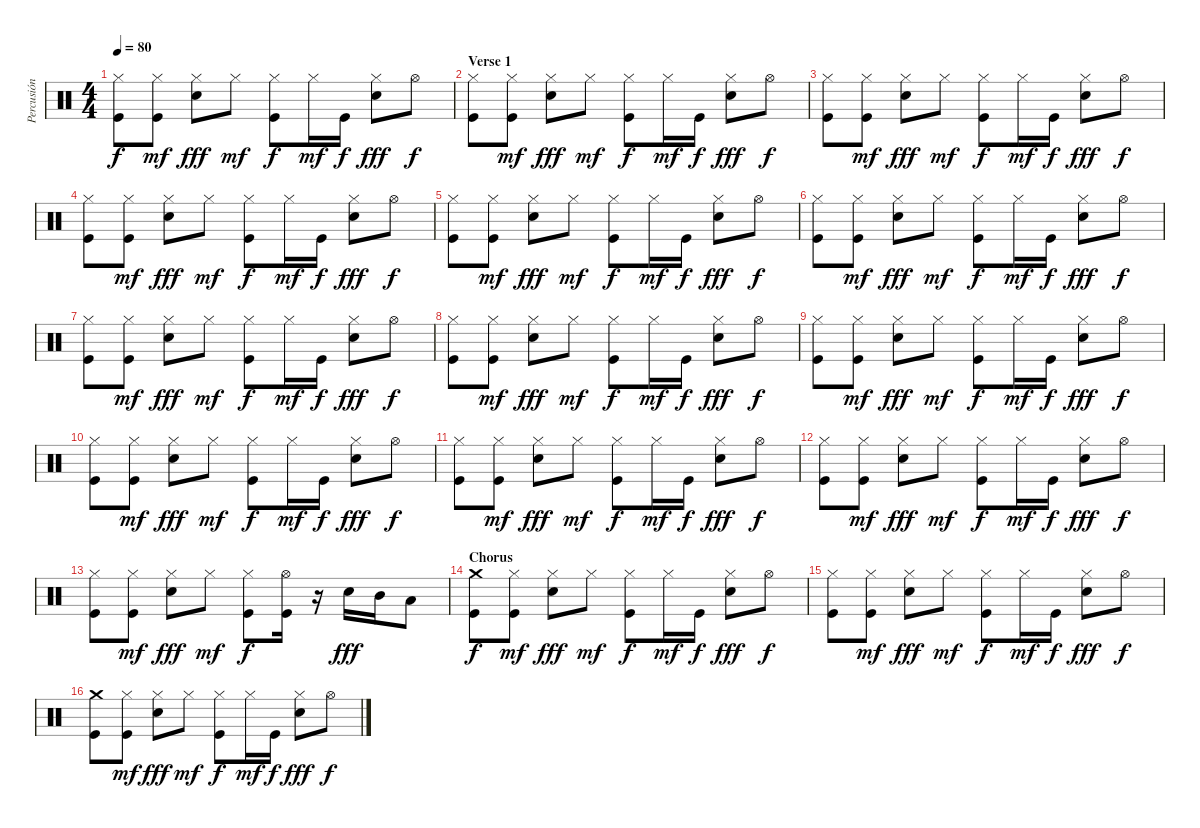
\track ("Percusión" "Percusión") {instrument percussion}
\staff {score}
\articulation defaults
\ts (4 4)
\tempo 80
\clef neutral
\ks c
("Kick (hit)" "Hi-Hat (closed)").8{dy f} ("Kick (hit)" "Hi-Hat (closed)").8{dy mf} ("Snare (hit) 2" "Hi-Hat (closed)").8{dy fff} "Hi-Hat (closed)".8{dy mf} ("Kick (hit)" "Hi-Hat (closed)").8{dy f} "Hi-Hat (closed)".16{dy mf} "Kick (hit)".16{dy f} ("Snare (hit) 2" "Hi-Hat (closed)").8{dy fff} "Hi-Hat (open)".8{dy f} |
\section ("" "Verse 1")
("Kick (hit)" "Hi-Hat (closed)").8 ("Kick (hit)" "Hi-Hat (closed)").8{dy mf} ("Snare (hit) 2" "Hi-Hat (closed)").8{dy fff} "Hi-Hat (closed)".8{dy mf} ("Kick (hit)" "Hi-Hat (closed)").8{dy f} "Hi-Hat (closed)".16{dy mf} "Kick (hit)".16{dy f} ("Snare (hit) 2" "Hi-Hat (closed)").8{dy fff} "Hi-Hat (open)".8{dy f} |
("Kick (hit)" "Hi-Hat (closed)").8 ("Kick (hit)" "Hi-Hat (closed)").8{dy mf} ("Snare (hit) 2" "Hi-Hat (closed)").8{dy fff} "Hi-Hat (closed)".8{dy mf} ("Kick (hit)" "Hi-Hat (closed)").8{dy f} "Hi-Hat (closed)".16{dy mf} "Kick (hit)".16{dy f} ("Snare (hit) 2" "Hi-Hat (closed)").8{dy fff} "Hi-Hat (open)".8{dy f} |
("Kick (hit)" "Hi-Hat (closed)").8 ("Kick (hit)" "Hi-Hat (closed)").8{dy mf} ("Snare (hit) 2" "Hi-Hat (closed)").8{dy fff} "Hi-Hat (closed)".8{dy mf} ("Kick (hit)" "Hi-Hat (closed)").8{dy f} "Hi-Hat (closed)".16{dy mf} "Kick (hit)".16{dy f} ("Snare (hit) 2" "Hi-Hat (closed)").8{dy fff} "Hi-Hat (open)".8{dy f} |
("Kick (hit)" "Hi-Hat (closed)").8 ("Kick (hit)" "Hi-Hat (closed)").8{dy mf} ("Snare (hit) 2" "Hi-Hat (closed)").8{dy fff} "Hi-Hat (closed)".8{dy mf} ("Kick (hit)" "Hi-Hat (closed)").8{dy f} "Hi-Hat (closed)".16{dy mf} "Kick (hit)".16{dy f} ("Snare (hit) 2" "Hi-Hat (closed)").8{dy fff} "Hi-Hat (open)".8{dy f} |
("Kick (hit)" "Hi-Hat (closed)").8 ("Kick (hit)" "Hi-Hat (closed)").8{dy mf} ("Snare (hit) 2" "Hi-Hat (closed)").8{dy fff} "Hi-Hat (closed)".8{dy mf} ("Kick (hit)" "Hi-Hat (closed)").8{dy f} "Hi-Hat (closed)".16{dy mf} "Kick (hit)".16{dy f} ("Snare (hit) 2" "Hi-Hat (closed)").8{dy fff} "Hi-Hat (open)".8{dy f} |
("Kick (hit)" "Hi-Hat (closed)").8 ("Kick (hit)" "Hi-Hat (closed)").8{dy mf} ("Snare (hit) 2" "Hi-Hat (closed)").8{dy fff} "Hi-Hat (closed)".8{dy mf} ("Kick (hit)" "Hi-Hat (closed)").8{dy f} "Hi-Hat (closed)".16{dy mf} "Kick (hit)".16{dy f} ("Snare (hit) 2" "Hi-Hat (closed)").8{dy fff} "Hi-Hat (open)".8{dy f} |
("Kick (hit)" "Hi-Hat (closed)").8 ("Kick (hit)" "Hi-Hat (closed)").8{dy mf} ("Snare (hit) 2" "Hi-Hat (closed)").8{dy fff} "Hi-Hat (closed)".8{dy mf} ("Kick (hit)" "Hi-Hat (closed)").8{dy f} "Hi-Hat (closed)".16{dy mf} "Kick (hit)".16{dy f} ("Snare (hit) 2" "Hi-Hat (closed)").8{dy fff} "Hi-Hat (open)".8{dy f} |
("Kick (hit)" "Hi-Hat (closed)").8 ("Kick (hit)" "Hi-Hat (closed)").8{dy mf} ("Snare (hit) 2" "Hi-Hat (closed)").8{dy fff} "Hi-Hat (closed)".8{dy mf} ("Kick (hit)" "Hi-Hat (closed)").8{dy f} "Hi-Hat (closed)".16{dy mf} "Kick (hit)".16{dy f} ("Snare (hit) 2" "Hi-Hat (closed)").8{dy fff} "Hi-Hat (open)".8{dy f} |
("Kick (hit)" "Hi-Hat (closed)").8 ("Kick (hit)" "Hi-Hat (closed)").8{dy mf} ("Snare (hit) 2" "Hi-Hat (closed)").8{dy fff} "Hi-Hat (closed)".8{dy mf} ("Kick (hit)" "Hi-Hat (closed)").8{dy f} "Hi-Hat (closed)".16{dy mf} "Kick (hit)".16{dy f} ("Snare (hit) 2" "Hi-Hat (closed)").8{dy fff} "Hi-Hat (open)".8{dy f} |
("Kick (hit)" "Hi-Hat (closed)").8 ("Kick (hit)" "Hi-Hat (closed)").8{dy mf} ("Snare (hit) 2" "Hi-Hat (closed)").8{dy fff} "Hi-Hat (closed)".8{dy mf} ("Kick (hit)" "Hi-Hat (closed)").8{dy f} "Hi-Hat (closed)".16{dy mf} "Kick (hit)".16{dy f} ("Snare (hit) 2" "Hi-Hat (closed)").8{dy fff} "Hi-Hat (open)".8{dy f} |
("Kick (hit)" "Hi-Hat (closed)").8 ("Kick (hit)" "Hi-Hat (closed)").8{dy mf} ("Snare (hit) 2" "Hi-Hat (closed)").8{dy fff} "Hi-Hat (closed)".8{dy mf} ("Kick (hit)" "Hi-Hat (closed)").8{dy f} "Hi-Hat (closed)".16{dy mf} "Kick (hit)".16{dy f} ("Snare (hit) 2" "Hi-Hat (closed)").8{dy fff} "Hi-Hat (open)".8{dy f} |
("Kick (hit)" "Hi-Hat (closed)").8 ("Kick (hit)" "Hi-Hat (closed)").8{dy mf} ("Snare (hit) 2" "Hi-Hat (closed)").8{dy fff} "Hi-Hat (closed)".8{dy mf} ("Kick (hit)" "Hi-Hat (closed)").8{dy f} ("Kick (hit)" "Hi-Hat (open)").16 r.16 "Snare (hit) 2".16{dy fff} "Mid Tom (hit)".16 "Low Tom (hit)".8 |
\section ("" "Chorus")
("Kick (hit)" "Crash medium (hit)").8{dy f} ("Kick (hit)" "Hi-Hat (closed)").8{dy mf} ("Snare (hit) 2" "Hi-Hat (closed)").8{dy fff} "Hi-Hat (closed)".8{dy mf} ("Kick (hit)" "Hi-Hat (closed)").8{dy f} "Hi-Hat (closed)".16{dy mf} "Kick (hit)".16{dy f} ("Snare (hit) 2" "Hi-Hat (closed)").8{dy fff} "Hi-Hat (open)".8{dy f} |
("Kick (hit)" "Hi-Hat (closed)").8 ("Kick (hit)" "Hi-Hat (closed)").8{dy mf} ("Snare (hit) 2" "Hi-Hat (closed)").8{dy fff} "Hi-Hat (closed)".8{dy mf} ("Kick (hit)" "Hi-Hat (closed)").8{dy f} "Hi-Hat (closed)".16{dy mf} "Kick (hit)".16{dy f} ("Snare (hit) 2" "Hi-Hat (closed)").8{dy fff} "Hi-Hat (open)".8{dy f} |
("Kick (hit)" "Crash medium (hit)").8 ("Kick (hit)" "Hi-Hat (closed)").8{dy mf} ("Snare (hit) 2" "Hi-Hat (closed)").8{dy fff} "Hi-Hat (closed)".8{dy mf} ("Kick (hit)" "Hi-Hat (closed)").8{dy f} "Hi-Hat (closed)".16{dy mf} "Kick (hit)".16{dy f} ("Snare (hit) 2" "Hi-Hat (closed)").8{dy fff} "Hi-Hat (open)".8{dy f}
